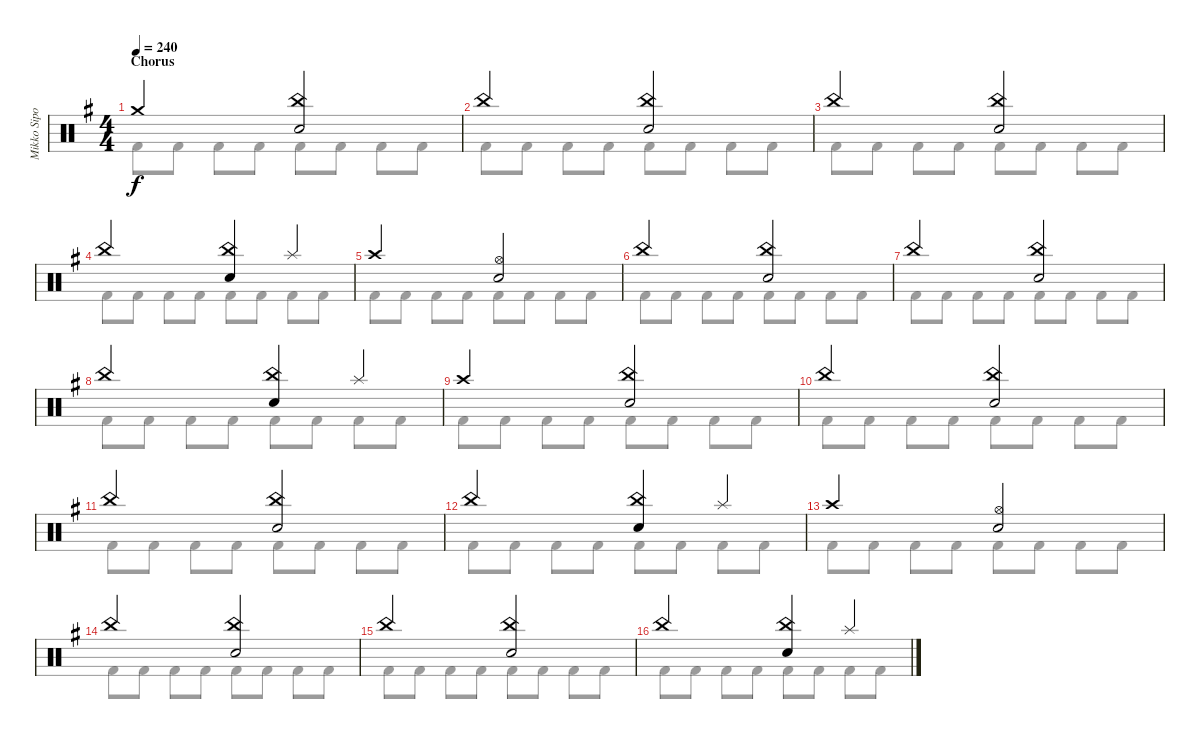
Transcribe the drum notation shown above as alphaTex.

\track ("Mikko Sipola (drums)" "Mikko Sipo") {instrument percussion}
\staff {score}
\articulation defaults
\voice
\ts (4 4)
\section ("" "Chorus")
\tempo 240
\clef neutral
\ks eminor "Crash medium (hit)".2{dy f}
("Electric Snare (hit)" "China (hit)").2 |
"China (hit)".2 ("Electric Snare (hit)" "China (hit)").2 |
"China (hit)".2 ("Electric Snare (hit)" "China (hit)").2 |
"China (hit)".2 ("Electric Snare (hit)" "China (hit)").4 "Splash (hit)".4 |
"Crash high (hit)".2 ("Electric Snare (hit)" "Hi-Hat (open)").2 |
"China (hit)".2 ("Electric Snare (hit)" "China (hit)").2 |
"China (hit)".2 ("Electric Snare (hit)" "China (hit)").2 |
"China (hit)".2 ("Electric Snare (hit)" "China (hit)").4 "Splash (hit)".4 |
"Crash high (hit)".2 ("Electric Snare (hit)" "China (hit)").2 |
"China (hit)".2 ("Electric Snare (hit)" "China (hit)").2 |
"China (hit)".2 ("Electric Snare (hit)" "China (hit)").2 |
"China (hit)".2 ("Electric Snare (hit)" "China (hit)").4 "Splash (hit)".4 |
"Crash high (hit)".2 ("Electric Snare (hit)" "Hi-Hat (open)").2 |
"China (hit)".2 ("Electric Snare (hit)" "China (hit)").2 |
"China (hit)".2 ("Electric Snare (hit)" "China (hit)").2 |
"China (hit)".2 ("Electric Snare (hit)" "China (hit)").4 "Splash (hit)".4
\voice
\clef neutral
\ottava regular
\simile none
\ks eminor "Kick (hit) 2".8{dy f} "Kick (hit) 2".8 "Kick (hit) 2".8 "Kick (hit) 2".8 "Kick (hit) 2".8 "Kick (hit) 2".8 "Kick (hit) 2".8 "Kick (hit) 2".8
|
"Kick (hit) 2".8 "Kick (hit) 2".8 "Kick (hit) 2".8 "Kick (hit) 2".8 "Kick (hit) 2".8 "Kick (hit) 2".8 "Kick (hit) 2".8 "Kick (hit) 2".8 |
"Kick (hit) 2".8 "Kick (hit) 2".8 "Kick (hit) 2".8 "Kick (hit) 2".8 "Kick (hit) 2".8 "Kick (hit) 2".8 "Kick (hit) 2".8 "Kick (hit) 2".8 |
"Kick (hit) 2".8 "Kick (hit) 2".8 "Kick (hit) 2".8 "Kick (hit) 2".8 "Kick (hit) 2".8 "Kick (hit) 2".8 "Kick (hit) 2".8 "Kick (hit) 2".8 |
"Kick (hit) 2".8 "Kick (hit) 2".8 "Kick (hit) 2".8 "Kick (hit) 2".8 "Kick (hit) 2".8 "Kick (hit) 2".8 "Kick (hit) 2".8 "Kick (hit) 2".8 |
"Kick (hit) 2".8 "Kick (hit) 2".8 "Kick (hit) 2".8 "Kick (hit) 2".8 "Kick (hit) 2".8 "Kick (hit) 2".8 "Kick (hit) 2".8 "Kick (hit) 2".8 |
"Kick (hit) 2".8 "Kick (hit) 2".8 "Kick (hit) 2".8 "Kick (hit) 2".8 "Kick (hit) 2".8 "Kick (hit) 2".8 "Kick (hit) 2".8 "Kick (hit) 2".8 |
"Kick (hit) 2".8 "Kick (hit) 2".8 "Kick (hit) 2".8 "Kick (hit) 2".8 "Kick (hit) 2".8 "Kick (hit) 2".8 "Kick (hit) 2".8 "Kick (hit) 2".8 |
"Kick (hit) 2".8 "Kick (hit) 2".8 "Kick (hit) 2".8 "Kick (hit) 2".8 "Kick (hit) 2".8 "Kick (hit) 2".8 "Kick (hit) 2".8 "Kick (hit) 2".8 |
"Kick (hit) 2".8 "Kick (hit) 2".8 "Kick (hit) 2".8 "Kick (hit) 2".8 "Kick (hit) 2".8 "Kick (hit) 2".8 "Kick (hit) 2".8 "Kick (hit) 2".8 |
"Kick (hit) 2".8 "Kick (hit) 2".8 "Kick (hit) 2".8 "Kick (hit) 2".8 "Kick (hit) 2".8 "Kick (hit) 2".8 "Kick (hit) 2".8 "Kick (hit) 2".8 |
"Kick (hit) 2".8 "Kick (hit) 2".8 "Kick (hit) 2".8 "Kick (hit) 2".8 "Kick (hit) 2".8 "Kick (hit) 2".8 "Kick (hit) 2".8 "Kick (hit) 2".8 |
"Kick (hit) 2".8 "Kick (hit) 2".8 "Kick (hit) 2".8 "Kick (hit) 2".8 "Kick (hit) 2".8 "Kick (hit) 2".8 "Kick (hit) 2".8 "Kick (hit) 2".8 |
"Kick (hit) 2".8 "Kick (hit) 2".8 "Kick (hit) 2".8 "Kick (hit) 2".8 "Kick (hit) 2".8 "Kick (hit) 2".8 "Kick (hit) 2".8 "Kick (hit) 2".8 |
"Kick (hit) 2".8 "Kick (hit) 2".8 "Kick (hit) 2".8 "Kick (hit) 2".8 "Kick (hit) 2".8 "Kick (hit) 2".8 "Kick (hit) 2".8 "Kick (hit) 2".8 |
"Kick (hit) 2".8 "Kick (hit) 2".8 "Kick (hit) 2".8 "Kick (hit) 2".8 "Kick (hit) 2".8 "Kick (hit) 2".8 "Kick (hit) 2".8 "Kick (hit) 2".8
